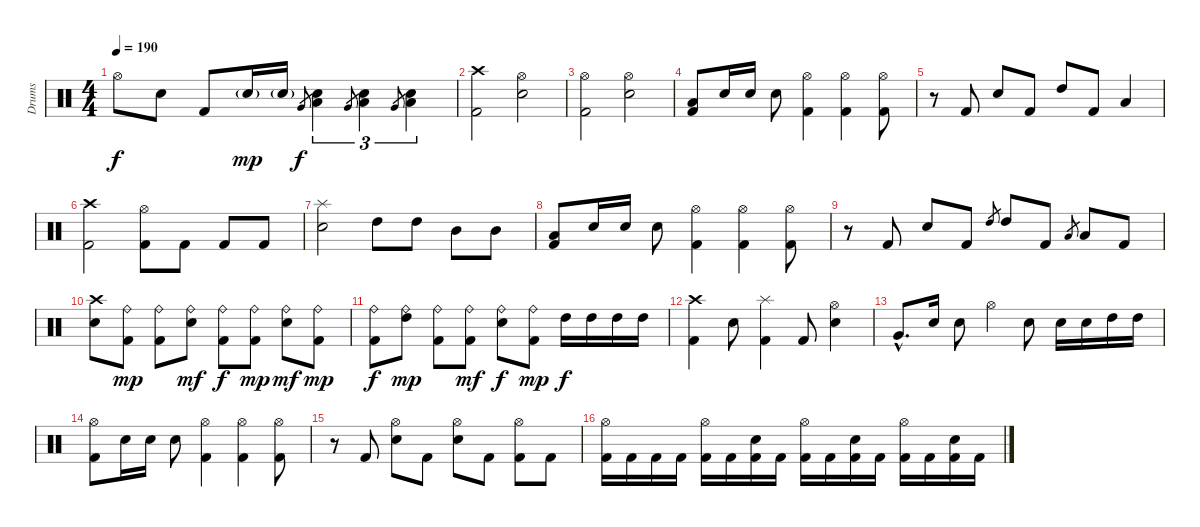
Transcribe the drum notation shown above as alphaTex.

\track ("Drums" "Drums") {instrument percussion}
\staff {score}
\articulation defaults
\ts (4 4)
\tempo 190
\clef neutral
\ks c "Hi-Hat (open)".8{dy f} "Snare (hit) 2".8 "Kick (hit) 2".8 "Snare (hit) 2"{g}.16{dy mp} "Snare (hit) 2"{g}.16 "Very Low Tom (hit)".8{gr dy f}
("Snare (hit) 2" "Low Tom (hit)").4{tu (3 2)} "Very Low Tom (hit)".8{gr} ("Snare (hit) 2" "Low Tom (hit)").4{tu (3 2)} "Very Low Tom (hit)".8{gr} ("Snare (hit) 2" "Low Tom (hit)").4{tu (3 2)} |
\section ("" "")
("Crash high (hit)" "Kick (hit) 2").2 ("Hi-Hat (open)" "Snare (hit) 2").2 |
("Hi-Hat (open)" "Kick (hit) 2").2 ("Hi-Hat (open)" "Snare (hit) 2").2 |
("Low Tom (hit)" "Kick (hit) 2").8 "Snare (hit) 2".16 "Snare (hit) 2".16 "Snare (hit) 2".8 ("Hi-Hat (open)" "Kick (hit) 2").4 ("Hi-Hat (open)" "Kick (hit) 2").4 ("Hi-Hat (open)" "Kick (hit) 2").8 |
r.8 "Kick (hit) 2".8 "Snare (hit) 2".8 "Kick (hit) 2".8 "High Tom (hit)".8 "Kick (hit) 2".8 "Low Tom (hit)".4 |
("Crash high (hit)" "Kick (hit) 2").2 ("Hi-Hat (open)" "Kick (hit) 2").8 "Kick (hit) 2".8 "Kick (hit) 2".8 "Kick (hit) 2".8 |
("Splash (hit)" "Snare (hit) 2").2 "High Tom (hit)".8 "High Tom (hit)".8 "Mid Tom (hit)".8 "Mid Tom (hit)".8 |
("Low Tom (hit)" "Kick (hit) 2").8 "Snare (hit) 2".16 "Snare (hit) 2".16 "Snare (hit) 2".8 ("Hi-Hat (open)" "Kick (hit) 2").4 ("Hi-Hat (open)" "Kick (hit) 2").4 ("Hi-Hat (open)" "Kick (hit) 2").8 |
r.8 "Kick (hit) 2".8 "Snare (hit) 2".8 "Kick (hit) 2".8 "High Tom (hit)".8{gr} "High Tom (hit)".8 "Kick (hit) 2".8 "Low Tom (hit)".8{gr} "Low Tom (hit)".8 "Kick (hit) 2".8 |
("Crash high (hit)" "Snare (hit) 2").8 ("Ride (bell)" "Kick (hit) 2").8{dy mp} ("Ride (bell)" "Kick (hit) 2").8 ("Ride (bell)" "Snare (hit) 2").8{dy mf} ("Ride (bell)" "Kick (hit) 2").8{dy f} ("Ride (bell)" "Kick (hit) 2").8{dy mp} ("Ride (bell)" "Snare (hit) 2").8{dy mf} ("Ride (bell)" "Kick (hit) 2").8{dy mp} |
("Ride (bell)" "Kick (hit) 2").8{dy f} ("Ride (bell)" "High Tom (hit)").8{dy mp} ("Ride (bell)" "Kick (hit) 2").8 ("Ride (bell)" "Kick (hit) 2").8{dy mf} ("Ride (bell)" "Snare (hit) 2").8{dy f} ("Ride (bell)" "Kick (hit) 2").8{dy mp} "High Tom (hit)".16{dy f} "High Tom (hit)".16 "High Tom (hit)".16 "High Tom (hit)".16 |
("Crash high (hit)" "Kick (hit) 2").4 "Snare (hit) 2".8 ("Splash (hit)" "Kick (hit) 2").4 "Kick (hit) 2".8 ("Hi-Hat (open)" "Snare (hit) 2").4 |
"Very Low Tom (hit)"{hac}.8{d} "Snare (hit) 2".16 "Snare (hit) 2".8 "Hi-Hat (open)".4 "Snare (hit) 2".8 "Snare (hit) 2".16 "Snare (hit) 2".16 "High Tom (hit)".16 "High Tom (hit)".16 |
("Hi-Hat (open)" "Kick (hit) 2").8 "Snare (hit) 2".16 "Snare (hit) 2".16 "Snare (hit) 2".8 ("Hi-Hat (open)" "Kick (hit) 2").4 ("Hi-Hat (open)" "Kick (hit) 2").4 ("Hi-Hat (open)" "Kick (hit) 2").8 |
r.8 "Kick (hit) 2".8 ("Hi-Hat (open)" "Snare (hit) 2").8 "Kick (hit) 2".8 ("Hi-Hat (open)" "Snare (hit) 2").8 "Kick (hit) 2".8 ("Hi-Hat (open)" "Kick (hit) 2").8 "Kick (hit) 2".8 |
("Hi-Hat (open)" "Kick (hit) 2").16 "Kick (hit) 2".16 "Kick (hit) 2".16 "Kick (hit) 2".16 ("Hi-Hat (open)" "Kick (hit) 2").16 "Kick (hit) 2".16 ("Snare (hit) 2" "Kick (hit) 2").16 "Kick (hit) 2".16 ("Hi-Hat (open)" "Kick (hit) 2").16 "Kick (hit) 2".16 ("Snare (hit) 2" "Kick (hit) 2").16 "Kick (hit) 2".16 ("Hi-Hat (open)" "Kick (hit) 2").16 "Kick (hit) 2".16 ("Snare (hit) 2" "Kick (hit) 2").16 "Kick (hit) 2".16
